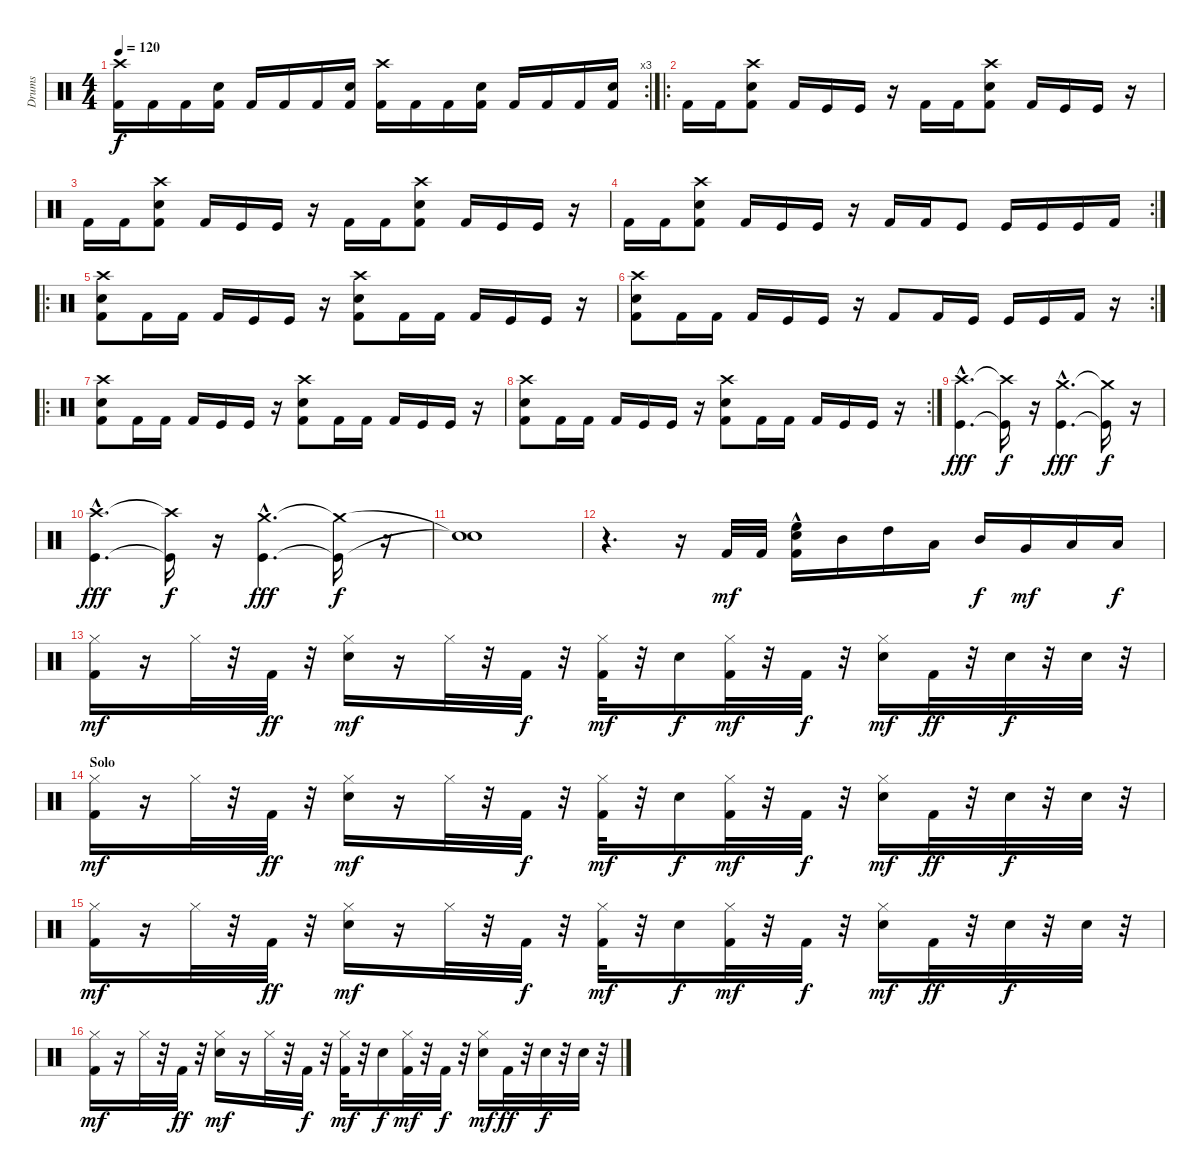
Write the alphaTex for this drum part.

\track ("Drums" "Drums") {instrument percussion}
\staff {score}
\articulation defaults
\rc 3
\ts (4 4)
\tempo 120
\clef neutral
\ks c
("Crash high (hit)" "Kick (hit) 2").16{dy f} "Kick (hit) 2".16 "Kick (hit) 2".16 ("Snare (hit) 2" "Kick (hit) 2").16 "Kick (hit) 2".16 "Kick (hit) 2".16 "Kick (hit) 2".16 ("Snare (hit) 2" "Kick (hit) 2").16 ("Crash high (hit)" "Kick (hit) 2").16 "Kick (hit) 2".16 "Kick (hit) 2".16 ("Snare (hit) 2" "Kick (hit) 2").16 "Kick (hit) 2".16 "Kick (hit) 2".16 "Kick (hit) 2".16 ("Snare (hit) 2" "Kick (hit) 2").16 |
\ro "Kick (hit) 2".16 "Kick (hit) 2".16
("Crash high (hit)" "Snare (hit) 2" "Kick (hit) 2").8 "Kick (hit) 2".16 "Kick (hit)".16 "Kick (hit)".16 r.16 "Kick (hit) 2".16 "Kick (hit) 2".16 ("Crash high (hit)" "Snare (hit) 2" "Kick (hit) 2").8 "Kick (hit) 2".16 "Kick (hit)".16 "Kick (hit)".16 r.16 |
"Kick (hit) 2".16 "Kick (hit) 2".16 ("Crash high (hit)" "Snare (hit) 2" "Kick (hit) 2").8 "Kick (hit) 2".16 "Kick (hit)".16 "Kick (hit)".16 r.16 "Kick (hit) 2".16 "Kick (hit) 2".16 ("Crash high (hit)" "Snare (hit) 2" "Kick (hit) 2").8 "Kick (hit) 2".16 "Kick (hit)".16 "Kick (hit)".16 r.16 |
\rc 2 "Kick (hit) 2".16 "Kick (hit) 2".16
("Crash high (hit)" "Snare (hit) 2" "Kick (hit) 2").8 "Kick (hit) 2".16 "Kick (hit)".16 "Kick (hit)".16 r.16 "Kick (hit) 2".16 "Kick (hit) 2".16 "Kick (hit)".8 "Kick (hit)".16 "Kick (hit)".16 "Kick (hit)".16 "Kick (hit) 2".16 |
\ro
("Crash high (hit)" "Snare (hit) 2" "Kick (hit) 2").8 "Kick (hit) 2".16 "Kick (hit) 2".16 "Kick (hit) 2".16 "Kick (hit)".16 "Kick (hit)".16 r.16 ("Crash high (hit)" "Snare (hit) 2" "Kick (hit) 2").8 "Kick (hit) 2".16 "Kick (hit) 2".16 "Kick (hit) 2".16 "Kick (hit)".16 "Kick (hit)".16 r.16 |
\rc 2
("Crash high (hit)" "Snare (hit) 2" "Kick (hit) 2").8 "Kick (hit) 2".16 "Kick (hit) 2".16 "Kick (hit) 2".16 "Kick (hit)".16 "Kick (hit)".16 r.16 "Kick (hit) 2".8 "Kick (hit) 2".16 "Kick (hit)".16 "Kick (hit)".16 "Kick (hit)".16 "Kick (hit) 2".16 r.16 |
\ro
("Crash high (hit)" "Snare (hit) 2" "Kick (hit) 2").8 "Kick (hit) 2".16 "Kick (hit) 2".16 "Kick (hit) 2".16 "Kick (hit)".16 "Kick (hit)".16 r.16 ("Crash high (hit)" "Snare (hit) 2" "Kick (hit) 2").8 "Kick (hit) 2".16 "Kick (hit) 2".16 "Kick (hit) 2".16 "Kick (hit)".16 "Kick (hit)".16 r.16 |
\rc 2
("Crash high (hit)" "Snare (hit) 2" "Kick (hit) 2").8 "Kick (hit) 2".16 "Kick (hit) 2".16 "Kick (hit) 2".16 "Kick (hit)".16 "Kick (hit)".16 r.16 ("Crash high (hit)" "Snare (hit) 2" "Kick (hit) 2").8 "Kick (hit) 2".16 "Kick (hit) 2".16 "Kick (hit) 2".16 "Kick (hit)".16 "Kick (hit)".16 r.16 |
("Crash high (hit)"{hac} "Kick (hit)"{hac}).4{d dy fff} ("Crash high (hit)"{t} "Kick (hit)"{t}).16{dy f} r.16 ("Crash medium (hit)"{hac} "Kick (hit)"{hac}).4{d dy fff} ("Crash medium (hit)"{t} "Kick (hit)"{t}).16{dy f} r.16 |
("Crash high (hit)"{hac} "Kick (hit)"{hac}).4{d dy fff} ("Crash high (hit)"{t} "Kick (hit)"{t}).16{dy f} r.16 ("Crash medium (hit)"{hac} "Kick (hit)"{hac}).4{d dy fff} ("Crash medium (hit)"{t} "Kick (hit)"{t}).16{dy f} r.16 |
("Snare (hit)"{t} "Snare (hit)"{t}).1 |
r.4{d} r.16 "Kick (hit) 2".32{dy mf} "Kick (hit) 2".32 ("Kick (hit) 2" "Electric Snare (hit)" "High Floor Tom (hit)"{hac}).16 "Mid Tom (hit)".16 "High Tom (hit)".16 "Low Tom (hit)".16 "Mid Tom (hit)".16{dy f} "Very Low Tom (hit)".16{dy mf} "Low Tom (hit)".16 "Low Floor Tom (hit)".16{dy f} |
("Kick (hit) 2" "Hi-Hat (closed)").16{dy mf} r.16 "Hi-Hat (closed)".32 r.32 "Kick (hit) 2".32{dy ff} r.32 ("Electric Snare (hit)" "Hi-Hat (closed)").16{dy mf} r.16 "Hi-Hat (closed)".32 r.32 "Kick (hit) 2".32{dy f} r.32 ("Kick (hit) 2" "Hi-Hat (closed)").32{dy mf} r.32 "Electric Snare (hit)".16{dy f} ("Kick (hit) 2" "Hi-Hat (closed)").32{dy mf} r.32 "Kick (hit) 2".32{dy f} r.32 ("Electric Snare (hit)" "Hi-Hat (closed)").16{dy mf} "Kick (hit) 2".32{dy ff} r.32 "Electric Snare (hit)".32{dy f} r.32 "Electric Snare (hit)".32 r.32 |
\section ("" "Solo")
("Kick (hit) 2" "Hi-Hat (closed)").16{dy mf} r.16 "Hi-Hat (closed)".32 r.32 "Kick (hit) 2".32{dy ff} r.32 ("Electric Snare (hit)" "Hi-Hat (closed)").16{dy mf} r.16 "Hi-Hat (closed)".32 r.32 "Kick (hit) 2".32{dy f} r.32 ("Kick (hit) 2" "Hi-Hat (closed)").32{dy mf} r.32 "Electric Snare (hit)".16{dy f} ("Kick (hit) 2" "Hi-Hat (closed)").32{dy mf} r.32 "Kick (hit) 2".32{dy f} r.32 ("Electric Snare (hit)" "Hi-Hat (closed)").16{dy mf} "Kick (hit) 2".32{dy ff} r.32 "Electric Snare (hit)".32{dy f} r.32 "Electric Snare (hit)".32 r.32 |
("Kick (hit) 2" "Hi-Hat (closed)").16{dy mf} r.16 "Hi-Hat (closed)".32 r.32 "Kick (hit) 2".32{dy ff} r.32 ("Electric Snare (hit)" "Hi-Hat (closed)").16{dy mf} r.16 "Hi-Hat (closed)".32 r.32 "Kick (hit) 2".32{dy f} r.32 ("Kick (hit) 2" "Hi-Hat (closed)").32{dy mf} r.32 "Electric Snare (hit)".16{dy f} ("Kick (hit) 2" "Hi-Hat (closed)").32{dy mf} r.32 "Kick (hit) 2".32{dy f} r.32 ("Electric Snare (hit)" "Hi-Hat (closed)").16{dy mf} "Kick (hit) 2".32{dy ff} r.32 "Electric Snare (hit)".32{dy f} r.32 "Electric Snare (hit)".32 r.32 |
("Kick (hit) 2" "Hi-Hat (closed)").16{dy mf} r.16 "Hi-Hat (closed)".32 r.32 "Kick (hit) 2".32{dy ff} r.32 ("Electric Snare (hit)" "Hi-Hat (closed)").16{dy mf} r.16 "Hi-Hat (closed)".32 r.32 "Kick (hit) 2".32{dy f} r.32 ("Kick (hit) 2" "Hi-Hat (closed)").32{dy mf} r.32 "Electric Snare (hit)".16{dy f} ("Kick (hit) 2" "Hi-Hat (closed)").32{dy mf} r.32 "Kick (hit) 2".32{dy f} r.32 ("Electric Snare (hit)" "Hi-Hat (closed)").16{dy mf} "Kick (hit) 2".32{dy ff} r.32 "Electric Snare (hit)".32{dy f} r.32 "Electric Snare (hit)".32 r.32
